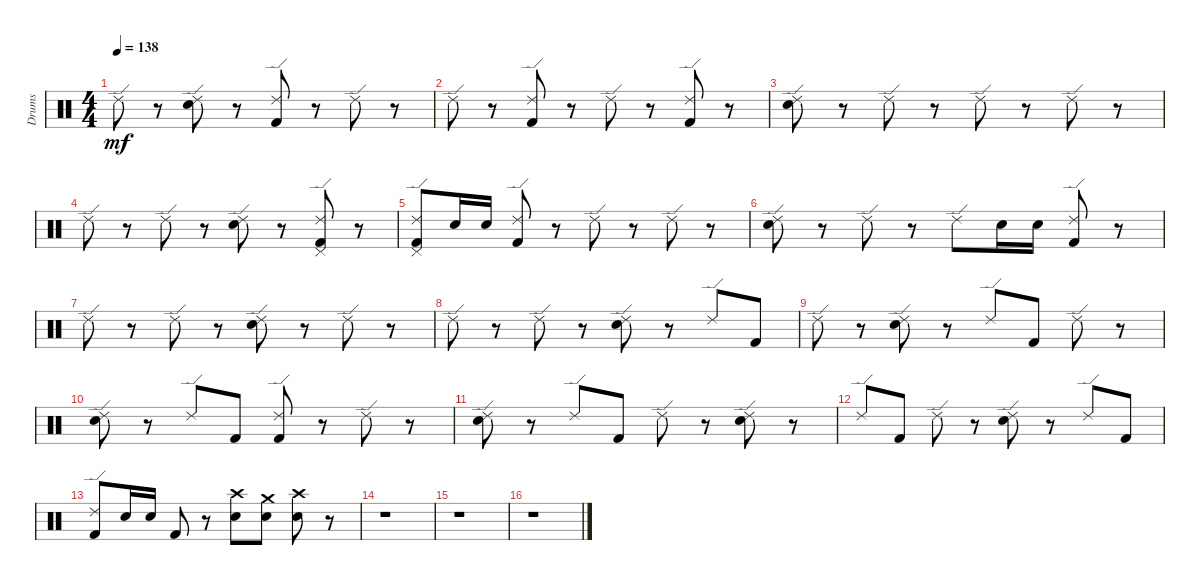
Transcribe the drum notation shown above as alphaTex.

\track ("Drums" "Drums") {instrument percussion}
\staff {score}
\articulation defaults
\ts (4 4)
\tempo 138
\clef neutral
\ks c "Ride (edge) 2".8{dy mf}
r.8 ("Electric Snare (hit)" "Ride (edge) 2").8 r.8 ("Kick (hit) 2" "Ride (edge) 2").8 r.8 "Ride (edge) 2".8 r.8 |
"Ride (edge) 2".8 r.8 ("Kick (hit) 2" "Ride (edge) 2").8 r.8 "Ride (edge) 2".8 r.8 ("Kick (hit) 2" "Ride (edge) 2").8 r.8 |
("Electric Snare (hit)" "Ride (edge) 2").8 r.8 "Ride (edge) 2".8 r.8 "Ride (edge) 2".8 r.8 "Ride (edge) 2".8 r.8 |
"Ride (edge) 2".8 r.8 "Ride (edge) 2".8 r.8 ("Electric Snare (hit)" "Ride (edge) 2").8 r.8 ("Kick (hit) 2" "Pedal Hi-Hat (hit)" "Ride (edge) 2").8 r.8 |
("Kick (hit) 2" "Pedal Hi-Hat (hit)" "Ride (edge) 2").8 "Electric Snare (hit)".16 "Electric Snare (hit)".16 ("Kick (hit) 2" "Ride (edge) 2").8 r.8 "Ride (edge) 2".8 r.8 "Ride (edge) 2".8 r.8 |
("Electric Snare (hit)" "Ride (edge) 2").8 r.8 "Ride (edge) 2".8 r.8 "Ride (edge) 2".8 "Electric Snare (hit)".16 "Electric Snare (hit)".16 ("Kick (hit) 2" "Ride (edge) 2").8 r.8 |
"Ride (edge) 2".8 r.8 "Ride (edge) 2".8 r.8 ("Electric Snare (hit)" "Ride (edge) 2").8 r.8 "Ride (edge) 2".8 r.8 |
"Ride (edge) 2".8 r.8 "Ride (edge) 2".8 r.8 ("Electric Snare (hit)" "Ride (edge) 2").8 r.8 "Ride (edge) 2".8 "Kick (hit) 2".8 |
"Ride (edge) 2".8 r.8 ("Electric Snare (hit)" "Ride (edge) 2").8 r.8 "Ride (edge) 2".8 "Kick (hit) 2".8 "Ride (edge) 2".8 r.8 |
("Electric Snare (hit)" "Ride (edge) 2").8 r.8 "Ride (edge) 2".8 "Kick (hit) 2".8 ("Kick (hit) 2" "Ride (edge) 2").8 r.8 "Ride (edge) 2".8 r.8 |
("Electric Snare (hit)" "Ride (edge) 2").8 r.8 "Ride (edge) 2".8 "Kick (hit) 2".8 "Ride (edge) 2".8 r.8 ("Electric Snare (hit)" "Ride (edge) 2").8 r.8 |
"Ride (edge) 2".8 "Kick (hit) 2".8 "Ride (edge) 2".8 r.8 ("Electric Snare (hit)" "Ride (edge) 2").8 r.8 "Ride (edge) 2".8 "Kick (hit) 2".8 |
("Kick (hit) 2" "Ride (edge) 2").8 "Electric Snare (hit)".16 "Electric Snare (hit)".16 "Kick (hit) 2".8 r.8 ("Electric Snare (hit)" "Crash high (hit)").8 ("Electric Snare (hit)" "Crash medium (hit)").8 ("Electric Snare (hit)" "Crash high (hit)").8 r.8 |
r.1 |
r.1 |
r.1
